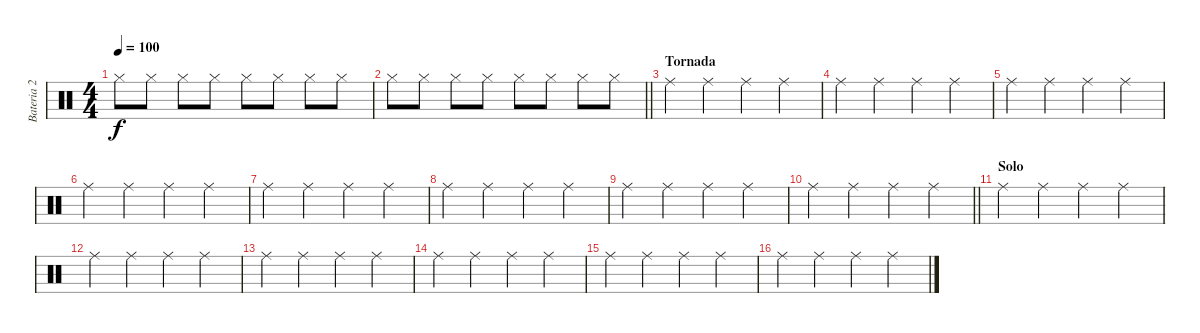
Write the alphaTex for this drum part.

\track ("Bateria 2" "Bateria 2") {instrument percussion}
\staff {score}
\articulation defaults
\ts (4 4)
\tempo 100
\clef neutral
\ks c "Hi-Hat (closed)".8{dy f} "Hi-Hat (closed)".8 "Hi-Hat (closed)".8 "Hi-Hat (closed)".8 "Hi-Hat (closed)".8 "Hi-Hat (closed)".8 "Hi-Hat (closed)".8 "Hi-Hat (closed)".8
|
\barLineRight lightlight "Hi-Hat (closed)".8 "Hi-Hat (closed)".8 "Hi-Hat (closed)".8 "Hi-Hat (closed)".8 "Hi-Hat (closed)".8 "Hi-Hat (closed)".8 "Hi-Hat (closed)".8 "Hi-Hat (closed)".8
|
\section ("" "Tornada")
"Ride (middle)".4 "Ride (middle)".4 "Ride (middle)".4 "Ride (middle)".4 |
"Ride (middle)".4 "Ride (middle)".4 "Ride (middle)".4 "Ride (middle)".4 |
"Ride (middle)".4 "Ride (middle)".4 "Ride (middle)".4 "Ride (middle)".4 |
"Ride (middle)".4 "Ride (middle)".4 "Ride (middle)".4 "Ride (middle)".4 |
"Ride (middle)".4 "Ride (middle)".4 "Ride (middle)".4 "Ride (middle)".4 |
"Ride (middle)".4 "Ride (middle)".4 "Ride (middle)".4 "Ride (middle)".4 |
"Ride (middle)".4 "Ride (middle)".4 "Ride (middle)".4 "Ride (middle)".4 |
\barLineRight lightlight "Ride (middle)".4 "Ride (middle)".4 "Ride (middle)".4 "Ride (middle)".4
|
\section ("" "Solo")
"Ride (middle)".4 "Ride (middle)".4 "Ride (middle)".4 "Ride (middle)".4 |
"Ride (middle)".4 "Ride (middle)".4 "Ride (middle)".4 "Ride (middle)".4 |
"Ride (middle)".4 "Ride (middle)".4 "Ride (middle)".4 "Ride (middle)".4 |
"Ride (middle)".4 "Ride (middle)".4 "Ride (middle)".4 "Ride (middle)".4 |
"Ride (middle)".4 "Ride (middle)".4 "Ride (middle)".4 "Ride (middle)".4 |
"Ride (middle)".4 "Ride (middle)".4 "Ride (middle)".4 "Ride (middle)".4
